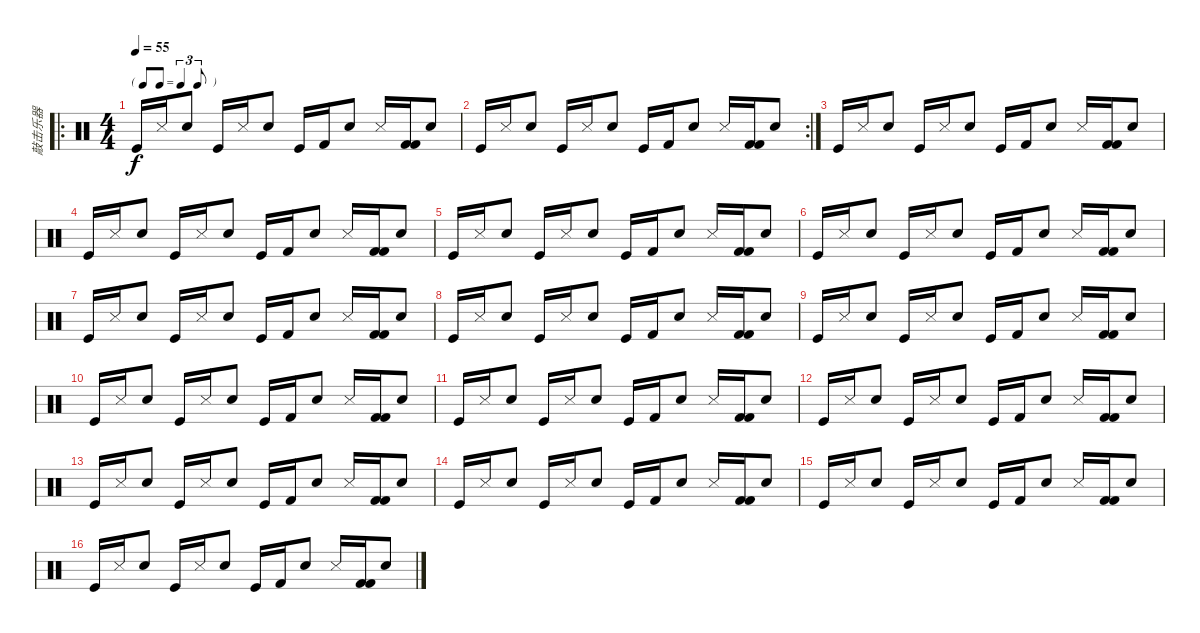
\track ("敲击乐器" "敲击乐器") {instrument percussion}
\staff {score}
\articulation defaults
\ro
\ts (4 4)
\tf triplet8th
\tempo 55
\clef neutral
\ks c "Kick (hit)".16{dy f} "Snare (side stick) 3".16 "Snare (hit) 2".8 "Kick (hit)".16 "Snare (side stick) 3".16 "Snare (hit) 2".8 "Kick (hit)".16 "Kick (hit) 2".16 "Snare (hit) 2".8 "Snare (side stick) 3".16
("Kick (hit) 2" "Kick (hit) 2").16 "Snare (hit) 2".8 |
\rc 2 "Kick (hit)".16 "Snare (side stick) 3".16 "Snare (hit) 2".8 "Kick (hit)".16 "Snare (side stick) 3".16 "Snare (hit) 2".8 "Kick (hit)".16 "Kick (hit) 2".16 "Snare (hit) 2".8 "Snare (side stick) 3".16
("Kick (hit) 2" "Kick (hit) 2").16 "Snare (hit) 2".8 |
"Kick (hit)".16 "Snare (side stick) 3".16 "Snare (hit) 2".8 "Kick (hit)".16 "Snare (side stick) 3".16 "Snare (hit) 2".8 "Kick (hit)".16 "Kick (hit) 2".16 "Snare (hit) 2".8 "Snare (side stick) 3".16 ("Kick (hit) 2" "Kick (hit) 2").16 "Snare (hit) 2".8 |
"Kick (hit)".16 "Snare (side stick) 3".16 "Snare (hit) 2".8 "Kick (hit)".16 "Snare (side stick) 3".16 "Snare (hit) 2".8 "Kick (hit)".16 "Kick (hit) 2".16 "Snare (hit) 2".8 "Snare (side stick) 3".16 ("Kick (hit) 2" "Kick (hit) 2").16 "Snare (hit) 2".8 |
"Kick (hit)".16 "Snare (side stick) 3".16 "Snare (hit) 2".8 "Kick (hit)".16 "Snare (side stick) 3".16 "Snare (hit) 2".8 "Kick (hit)".16 "Kick (hit) 2".16 "Snare (hit) 2".8 "Snare (side stick) 3".16 ("Kick (hit) 2" "Kick (hit) 2").16 "Snare (hit) 2".8 |
"Kick (hit)".16 "Snare (side stick) 3".16 "Snare (hit) 2".8 "Kick (hit)".16 "Snare (side stick) 3".16 "Snare (hit) 2".8 "Kick (hit)".16 "Kick (hit) 2".16 "Snare (hit) 2".8 "Snare (side stick) 3".16 ("Kick (hit) 2" "Kick (hit) 2").16 "Snare (hit) 2".8 |
"Kick (hit)".16 "Snare (side stick) 3".16 "Snare (hit) 2".8 "Kick (hit)".16 "Snare (side stick) 3".16 "Snare (hit) 2".8 "Kick (hit)".16 "Kick (hit) 2".16 "Snare (hit) 2".8 "Snare (side stick) 3".16 ("Kick (hit) 2" "Kick (hit) 2").16 "Snare (hit) 2".8 |
"Kick (hit)".16 "Snare (side stick) 3".16 "Snare (hit) 2".8 "Kick (hit)".16 "Snare (side stick) 3".16 "Snare (hit) 2".8 "Kick (hit)".16 "Kick (hit) 2".16 "Snare (hit) 2".8 "Snare (side stick) 3".16 ("Kick (hit) 2" "Kick (hit) 2").16 "Snare (hit) 2".8 |
"Kick (hit)".16 "Snare (side stick) 3".16 "Snare (hit) 2".8 "Kick (hit)".16 "Snare (side stick) 3".16 "Snare (hit) 2".8 "Kick (hit)".16 "Kick (hit) 2".16 "Snare (hit) 2".8 "Snare (side stick) 3".16 ("Kick (hit) 2" "Kick (hit) 2").16 "Snare (hit) 2".8 |
"Kick (hit)".16 "Snare (side stick) 3".16 "Snare (hit) 2".8 "Kick (hit)".16 "Snare (side stick) 3".16 "Snare (hit) 2".8 "Kick (hit)".16 "Kick (hit) 2".16 "Snare (hit) 2".8 "Snare (side stick) 3".16 ("Kick (hit) 2" "Kick (hit) 2").16 "Snare (hit) 2".8 |
"Kick (hit)".16 "Snare (side stick) 3".16 "Snare (hit) 2".8 "Kick (hit)".16 "Snare (side stick) 3".16 "Snare (hit) 2".8 "Kick (hit)".16 "Kick (hit) 2".16 "Snare (hit) 2".8 "Snare (side stick) 3".16 ("Kick (hit) 2" "Kick (hit) 2").16 "Snare (hit) 2".8 |
"Kick (hit)".16 "Snare (side stick) 3".16 "Snare (hit) 2".8 "Kick (hit)".16 "Snare (side stick) 3".16 "Snare (hit) 2".8 "Kick (hit)".16 "Kick (hit) 2".16 "Snare (hit) 2".8 "Snare (side stick) 3".16 ("Kick (hit) 2" "Kick (hit) 2").16 "Snare (hit) 2".8 |
"Kick (hit)".16 "Snare (side stick) 3".16 "Snare (hit) 2".8 "Kick (hit)".16 "Snare (side stick) 3".16 "Snare (hit) 2".8 "Kick (hit)".16 "Kick (hit) 2".16 "Snare (hit) 2".8 "Snare (side stick) 3".16 ("Kick (hit) 2" "Kick (hit) 2").16 "Snare (hit) 2".8 |
"Kick (hit)".16 "Snare (side stick) 3".16 "Snare (hit) 2".8 "Kick (hit)".16 "Snare (side stick) 3".16 "Snare (hit) 2".8 "Kick (hit)".16 "Kick (hit) 2".16 "Snare (hit) 2".8 "Snare (side stick) 3".16 ("Kick (hit) 2" "Kick (hit) 2").16 "Snare (hit) 2".8 |
"Kick (hit)".16 "Snare (side stick) 3".16 "Snare (hit) 2".8 "Kick (hit)".16 "Snare (side stick) 3".16 "Snare (hit) 2".8 "Kick (hit)".16 "Kick (hit) 2".16 "Snare (hit) 2".8 "Snare (side stick) 3".16 ("Kick (hit) 2" "Kick (hit) 2").16 "Snare (hit) 2".8 |
"Kick (hit)".16 "Snare (side stick) 3".16 "Snare (hit) 2".8 "Kick (hit)".16 "Snare (side stick) 3".16 "Snare (hit) 2".8 "Kick (hit)".16 "Kick (hit) 2".16 "Snare (hit) 2".8 "Snare (side stick) 3".16 ("Kick (hit) 2" "Kick (hit) 2").16 "Snare (hit) 2".8
